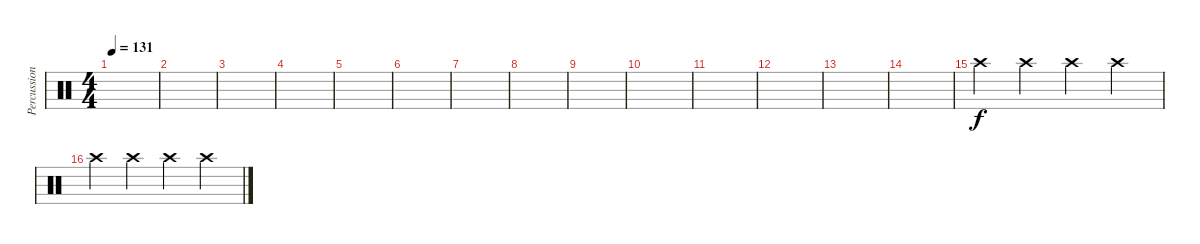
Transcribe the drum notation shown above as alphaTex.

\track ("Percussions" "Percussion") {instrument percussion}
\staff {score}
\articulation defaults
\ts (4 4)
\tempo 131
\clef neutral
\ks c
|
|
|
|
|
|
|
|
|
|
|
|
|
|
"Crash high (hit)".4 "Crash high (hit)".4 "Crash high (hit)".4 "Crash high (hit)".4 |
"Crash high (hit)".4 "Crash high (hit)".4 "Crash high (hit)".4 "Crash high (hit)".4
